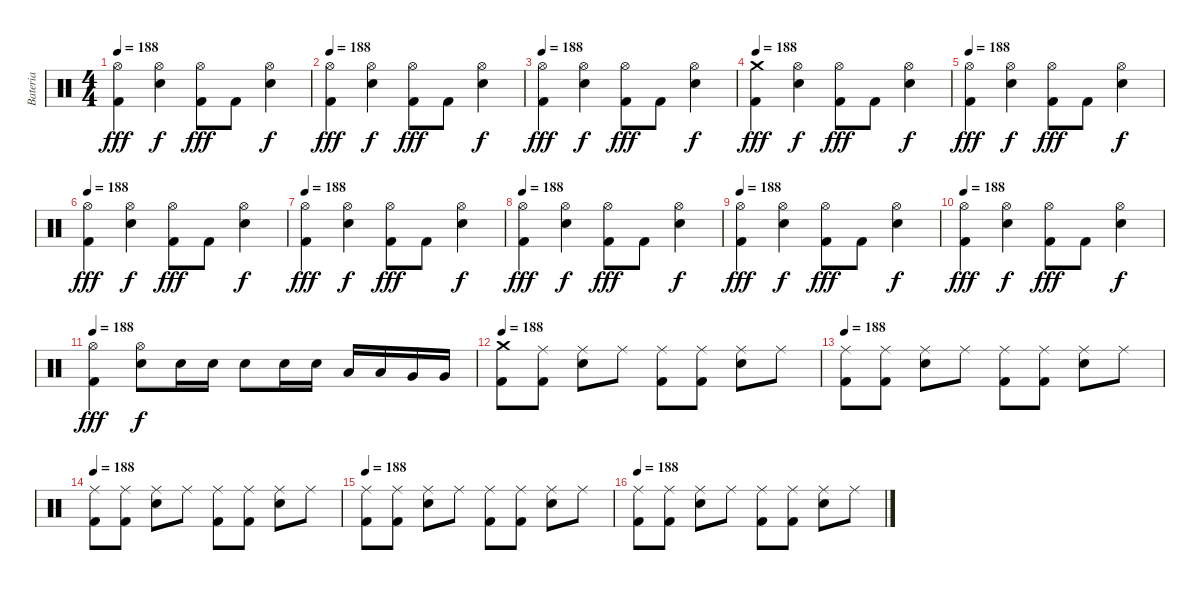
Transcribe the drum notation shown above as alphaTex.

\track ("Bateria" "Bateria") {instrument percussion}
\staff {score}
\articulation defaults
\ts (4 4)
\tempo 188
\clef neutral
\ks c
("Hi-Hat (open)" "Kick (hit) 2").4{dy fff} ("Hi-Hat (open)" "Electric Snare (hit)").4{dy f} ("Hi-Hat (open)" "Kick (hit) 2").8{dy fff} "Kick (hit) 2".8 ("Hi-Hat (open)" "Electric Snare (hit)").4{dy f} |
\tempo 188
("Hi-Hat (open)" "Kick (hit) 2").4{dy fff} ("Hi-Hat (open)" "Electric Snare (hit)").4{dy f} ("Hi-Hat (open)" "Kick (hit) 2").8{dy fff} "Kick (hit) 2".8 ("Hi-Hat (open)" "Electric Snare (hit)").4{dy f} |
\tempo 188
("Hi-Hat (open)" "Kick (hit) 2").4{dy fff} ("Hi-Hat (open)" "Electric Snare (hit)").4{dy f} ("Hi-Hat (open)" "Kick (hit) 2").8{dy fff} "Kick (hit) 2".8 ("Hi-Hat (open)" "Electric Snare (hit)").4{dy f} |
\tempo 188
("Crash medium (hit)" "Kick (hit) 2").4{dy fff} ("Hi-Hat (open)" "Electric Snare (hit)").4{dy f} ("Hi-Hat (open)" "Kick (hit) 2").8{dy fff} "Kick (hit) 2".8 ("Hi-Hat (open)" "Electric Snare (hit)").4{dy f} |
\tempo 188
("Hi-Hat (open)" "Kick (hit) 2").4{dy fff} ("Hi-Hat (open)" "Electric Snare (hit)").4{dy f} ("Hi-Hat (open)" "Kick (hit) 2").8{dy fff} "Kick (hit) 2".8 ("Hi-Hat (open)" "Electric Snare (hit)").4{dy f} |
\tempo 188
("Hi-Hat (open)" "Kick (hit) 2").4{dy fff} ("Hi-Hat (open)" "Electric Snare (hit)").4{dy f} ("Hi-Hat (open)" "Kick (hit) 2").8{dy fff} "Kick (hit) 2".8 ("Hi-Hat (open)" "Electric Snare (hit)").4{dy f} |
\tempo 188
("Hi-Hat (open)" "Kick (hit) 2").4{dy fff} ("Hi-Hat (open)" "Electric Snare (hit)").4{dy f} ("Hi-Hat (open)" "Kick (hit) 2").8{dy fff} "Kick (hit) 2".8 ("Hi-Hat (open)" "Electric Snare (hit)").4{dy f} |
\tempo 188
("Hi-Hat (open)" "Kick (hit) 2").4{dy fff} ("Hi-Hat (open)" "Electric Snare (hit)").4{dy f} ("Hi-Hat (open)" "Kick (hit) 2").8{dy fff} "Kick (hit) 2".8 ("Hi-Hat (open)" "Electric Snare (hit)").4{dy f} |
\tempo 188
("Hi-Hat (open)" "Kick (hit) 2").4{dy fff} ("Hi-Hat (open)" "Electric Snare (hit)").4{dy f} ("Hi-Hat (open)" "Kick (hit) 2").8{dy fff} "Kick (hit) 2".8 ("Hi-Hat (open)" "Electric Snare (hit)").4{dy f} |
\tempo 188
("Hi-Hat (open)" "Kick (hit) 2").4{dy fff} ("Hi-Hat (open)" "Electric Snare (hit)").4{dy f} ("Hi-Hat (open)" "Kick (hit) 2").8{dy fff} "Kick (hit) 2".8 ("Hi-Hat (open)" "Electric Snare (hit)").4{dy f} |
\tempo 188
("Hi-Hat (open)" "Kick (hit) 2").4{dy fff} ("Hi-Hat (open)" "Electric Snare (hit)").8{dy f} "Electric Snare (hit)".16 "Electric Snare (hit)".16 "Electric Snare (hit)".8 "Electric Snare (hit)".16 "Electric Snare (hit)".16 "Low Tom (hit)".16 "Low Tom (hit)".16 "Very Low Tom (hit)".16 "Very Low Tom (hit)".16 |
\tempo 188
("Crash medium (hit)" "Kick (hit) 2").8 ("Ride (middle)" "Kick (hit) 2").8 ("Ride (middle)" "Electric Snare (hit)").8 "Ride (middle)".8 ("Ride (middle)" "Kick (hit) 2").8 ("Ride (middle)" "Kick (hit) 2").8 ("Ride (middle)" "Electric Snare (hit)").8 "Ride (middle)".8 |
\tempo 188
("Ride (middle)" "Kick (hit) 2").8 ("Ride (middle)" "Kick (hit) 2").8 ("Ride (middle)" "Electric Snare (hit)").8 "Ride (middle)".8 ("Ride (middle)" "Kick (hit) 2").8 ("Ride (middle)" "Kick (hit) 2").8 ("Ride (middle)" "Electric Snare (hit)").8 "Ride (middle)".8 |
\tempo 188
("Ride (middle)" "Kick (hit) 2").8 ("Ride (middle)" "Kick (hit) 2").8 ("Ride (middle)" "Electric Snare (hit)").8 "Ride (middle)".8 ("Ride (middle)" "Kick (hit) 2").8 ("Ride (middle)" "Kick (hit) 2").8 ("Ride (middle)" "Electric Snare (hit)").8 "Ride (middle)".8 |
\tempo 188
("Ride (middle)" "Kick (hit) 2").8 ("Ride (middle)" "Kick (hit) 2").8 ("Ride (middle)" "Electric Snare (hit)").8 "Ride (middle)".8 ("Ride (middle)" "Kick (hit) 2").8 ("Ride (middle)" "Kick (hit) 2").8 ("Ride (middle)" "Electric Snare (hit)").8 "Ride (middle)".8 |
\tempo 188
("Ride (middle)" "Kick (hit) 2").8 ("Ride (middle)" "Kick (hit) 2").8 ("Ride (middle)" "Electric Snare (hit)").8 "Ride (middle)".8 ("Ride (middle)" "Kick (hit) 2").8 ("Ride (middle)" "Kick (hit) 2").8 ("Ride (middle)" "Electric Snare (hit)").8 "Ride (middle)".8
